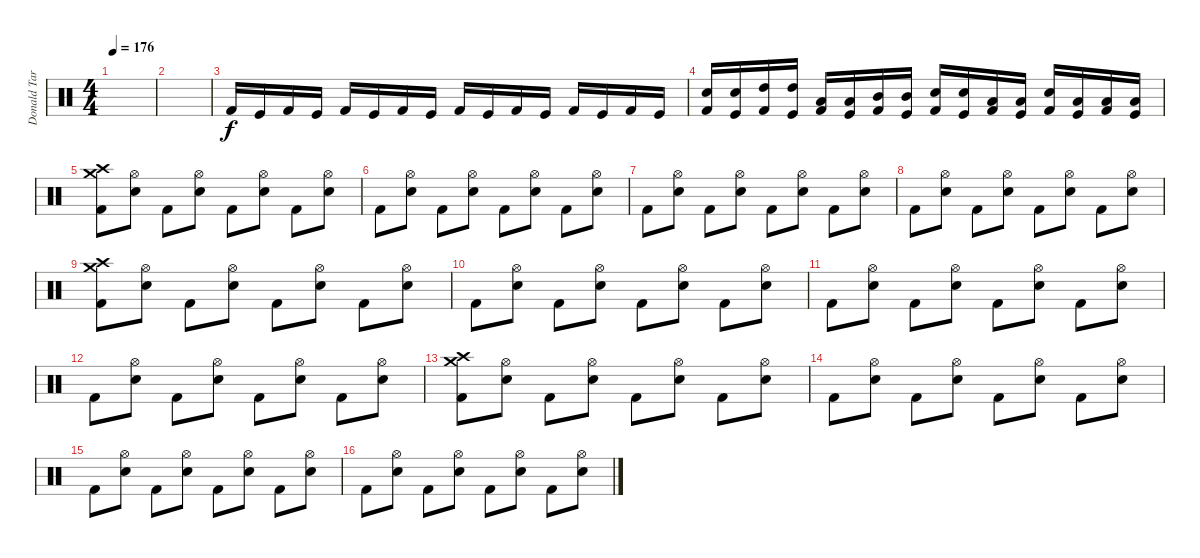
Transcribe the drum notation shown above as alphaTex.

\track ("Donald Tardy (Drums)" "Donald Tar") {instrument percussion}
\staff {score}
\articulation defaults
\ts (4 4)
\tempo 176
\clef neutral
\ks c
|
|
"Kick (hit) 2".16{volume 1} "Kick (hit)".16{volume 3} "Kick (hit) 2".16{volume 5} "Kick (hit)".16{volume 7} "Kick (hit) 2".16{volume 9} "Kick (hit)".16{volume 11} "Kick (hit) 2".16{volume 13} "Kick (hit)".16 "Kick (hit) 2".16 "Kick (hit)".16 "Kick (hit) 2".16 "Kick (hit)".16 "Kick (hit) 2".16 "Kick (hit)".16 "Kick (hit) 2".16 "Kick (hit)".16 |
("Kick (hit) 2" "Electric Snare (hit)").16 ("Kick (hit)" "Electric Snare (hit)").16 ("Kick (hit) 2" "High Tom (hit)").16 ("Kick (hit)" "High Tom (hit)").16 ("Kick (hit) 2" "Low Tom (hit)").16 ("Kick (hit)" "Low Tom (hit)").16 ("Kick (hit) 2" "Mid Tom (hit)").16 ("Kick (hit)" "Mid Tom (hit)").16 ("Kick (hit) 2" "Electric Snare (hit)").16 ("Kick (hit)" "Electric Snare (hit)").16 ("Kick (hit) 2" "Low Tom (hit)").16 ("Kick (hit)" "Low Tom (hit)").16 ("Kick (hit) 2" "Electric Snare (hit)").16 ("Kick (hit)" "Low Tom (hit)").16 ("Kick (hit) 2" "Low Tom (hit)").16 ("Kick (hit)" "Low Tom (hit)").16 |
("Kick (hit) 2" "Crash medium (hit)" "Crash high (hit)").8 ("Electric Snare (hit)" "Hi-Hat (open)").8 "Kick (hit) 2".8 ("Electric Snare (hit)" "Hi-Hat (open)").8 "Kick (hit) 2".8 ("Electric Snare (hit)" "Hi-Hat (open)").8 "Kick (hit) 2".8 ("Electric Snare (hit)" "Hi-Hat (open)").8 |
"Kick (hit) 2".8 ("Electric Snare (hit)" "Hi-Hat (open)").8 "Kick (hit) 2".8 ("Electric Snare (hit)" "Hi-Hat (open)").8 "Kick (hit) 2".8 ("Electric Snare (hit)" "Hi-Hat (open)").8 "Kick (hit) 2".8 ("Electric Snare (hit)" "Hi-Hat (open)").8 |
"Kick (hit) 2".8 ("Electric Snare (hit)" "Hi-Hat (open)").8 "Kick (hit) 2".8 ("Electric Snare (hit)" "Hi-Hat (open)").8 "Kick (hit) 2".8 ("Electric Snare (hit)" "Hi-Hat (open)").8 "Kick (hit) 2".8 ("Electric Snare (hit)" "Hi-Hat (open)").8 |
"Kick (hit) 2".8 ("Electric Snare (hit)" "Hi-Hat (open)").8 "Kick (hit) 2".8 ("Electric Snare (hit)" "Hi-Hat (open)").8 "Kick (hit) 2".8 ("Electric Snare (hit)" "Hi-Hat (open)").8 "Kick (hit) 2".8 ("Electric Snare (hit)" "Hi-Hat (open)").8 |
("Kick (hit) 2" "Crash medium (hit)" "Crash high (hit)").8 ("Electric Snare (hit)" "Hi-Hat (open)").8 "Kick (hit) 2".8 ("Electric Snare (hit)" "Hi-Hat (open)").8 "Kick (hit) 2".8 ("Electric Snare (hit)" "Hi-Hat (open)").8 "Kick (hit) 2".8 ("Electric Snare (hit)" "Hi-Hat (open)").8 |
"Kick (hit) 2".8 ("Electric Snare (hit)" "Hi-Hat (open)").8 "Kick (hit) 2".8 ("Electric Snare (hit)" "Hi-Hat (open)").8 "Kick (hit) 2".8 ("Electric Snare (hit)" "Hi-Hat (open)").8 "Kick (hit) 2".8 ("Electric Snare (hit)" "Hi-Hat (open)").8 |
"Kick (hit) 2".8 ("Electric Snare (hit)" "Hi-Hat (open)").8 "Kick (hit) 2".8 ("Electric Snare (hit)" "Hi-Hat (open)").8 "Kick (hit) 2".8 ("Electric Snare (hit)" "Hi-Hat (open)").8 "Kick (hit) 2".8 ("Electric Snare (hit)" "Hi-Hat (open)").8 |
"Kick (hit) 2".8 ("Electric Snare (hit)" "Hi-Hat (open)").8 "Kick (hit) 2".8 ("Electric Snare (hit)" "Hi-Hat (open)").8 "Kick (hit) 2".8 ("Electric Snare (hit)" "Hi-Hat (open)").8 "Kick (hit) 2".8 ("Electric Snare (hit)" "Hi-Hat (open)").8 |
("Kick (hit) 2" "Crash medium (hit)" "Crash high (hit)").8 ("Electric Snare (hit)" "Hi-Hat (open)").8 "Kick (hit) 2".8 ("Electric Snare (hit)" "Hi-Hat (open)").8 "Kick (hit) 2".8 ("Electric Snare (hit)" "Hi-Hat (open)").8 "Kick (hit) 2".8 ("Electric Snare (hit)" "Hi-Hat (open)").8 |
"Kick (hit) 2".8 ("Electric Snare (hit)" "Hi-Hat (open)").8 "Kick (hit) 2".8 ("Electric Snare (hit)" "Hi-Hat (open)").8 "Kick (hit) 2".8 ("Electric Snare (hit)" "Hi-Hat (open)").8 "Kick (hit) 2".8 ("Electric Snare (hit)" "Hi-Hat (open)").8 |
"Kick (hit) 2".8 ("Electric Snare (hit)" "Hi-Hat (open)").8 "Kick (hit) 2".8 ("Electric Snare (hit)" "Hi-Hat (open)").8 "Kick (hit) 2".8 ("Electric Snare (hit)" "Hi-Hat (open)").8 "Kick (hit) 2".8 ("Electric Snare (hit)" "Hi-Hat (open)").8 |
"Kick (hit) 2".8 ("Electric Snare (hit)" "Hi-Hat (open)").8 "Kick (hit) 2".8 ("Electric Snare (hit)" "Hi-Hat (open)").8 "Kick (hit) 2".8 ("Electric Snare (hit)" "Hi-Hat (open)").8 "Kick (hit) 2".8 ("Electric Snare (hit)" "Hi-Hat (open)").8
